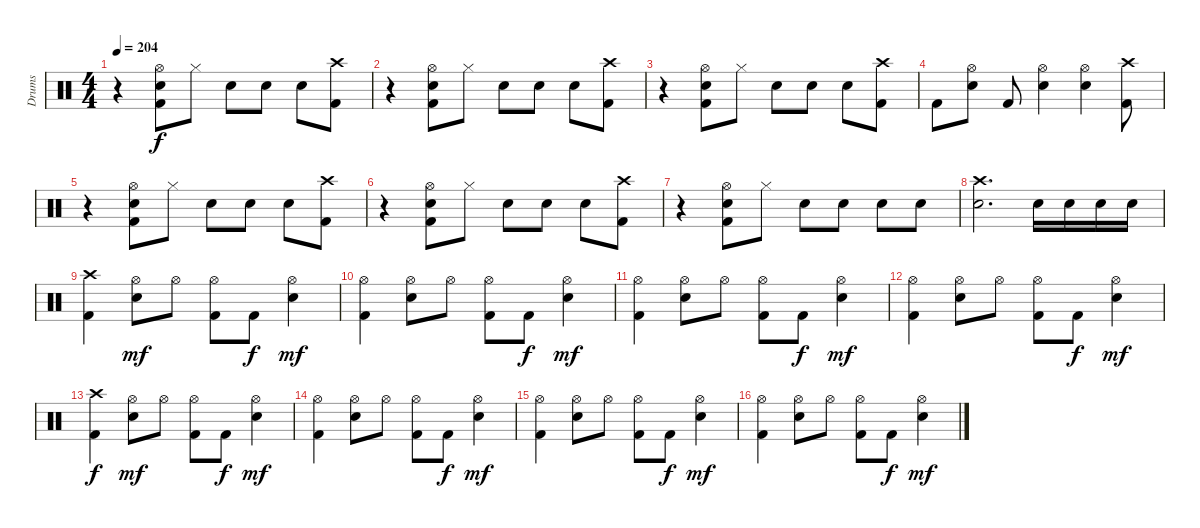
\track ("Drums" "Drums") {instrument percussion}
\staff {score}
\articulation defaults
\ts (4 4)
\tempo 204
\clef neutral
\ks c
r.4{dy f} ("Kick (hit) 2" "Electric Snare (hit)" "Hi-Hat (open)").8 "Hi-Hat (closed)".8 "Electric Snare (hit)".8 "Electric Snare (hit)".8 "Electric Snare (hit)".8 ("Kick (hit) 2" "Crash high (hit)").8 |
r.4 ("Kick (hit) 2" "Electric Snare (hit)" "Hi-Hat (open)").8 "Hi-Hat (closed)".8 "Electric Snare (hit)".8 "Electric Snare (hit)".8 "Electric Snare (hit)".8 ("Kick (hit) 2" "Crash high (hit)").8 |
r.4 ("Kick (hit) 2" "Electric Snare (hit)" "Hi-Hat (open)").8 "Hi-Hat (closed)".8 "Electric Snare (hit)".8 "Electric Snare (hit)".8 "Electric Snare (hit)".8 ("Kick (hit) 2" "Crash high (hit)").8 |
"Kick (hit) 2".8 ("Electric Snare (hit)" "Hi-Hat (open)").8 "Kick (hit) 2".8 ("Electric Snare (hit)" "Hi-Hat (open)").4 ("Electric Snare (hit)" "Hi-Hat (open)").4 ("Crash high (hit)" "Kick (hit) 2").8 |
r.4 ("Kick (hit) 2" "Electric Snare (hit)" "Hi-Hat (open)").8 "Hi-Hat (closed)".8 "Electric Snare (hit)".8 "Electric Snare (hit)".8 "Electric Snare (hit)".8 ("Kick (hit) 2" "Crash high (hit)").8 |
r.4 ("Kick (hit) 2" "Electric Snare (hit)" "Hi-Hat (open)").8 "Hi-Hat (closed)".8 "Electric Snare (hit)".8 "Electric Snare (hit)".8 "Electric Snare (hit)".8 ("Kick (hit) 2" "Crash high (hit)").8 |
r.4 ("Kick (hit) 2" "Electric Snare (hit)" "Hi-Hat (open)").8 "Hi-Hat (closed)".8 "Electric Snare (hit)".8 "Electric Snare (hit)".8 "Electric Snare (hit)".8 "Electric Snare (hit)".8 |
("Crash high (hit)" "Electric Snare (hit)").2{d} "Electric Snare (hit)".16 "Electric Snare (hit)".16 "Electric Snare (hit)".16 "Electric Snare (hit)".16 |
("Kick (hit) 2" "Crash high (hit)").4 ("Snare (hit) 2" "Hi-Hat (open)").8{dy mf} "Hi-Hat (open)".8 ("Kick (hit) 2" "Hi-Hat (open)").8 "Kick (hit) 2".8{dy f} ("Snare (hit) 2" "Hi-Hat (open)").4{dy mf} |
("Kick (hit) 2" "Hi-Hat (open)").4 ("Electric Snare (hit)" "Hi-Hat (open)").8 "Hi-Hat (open)".8 ("Kick (hit) 2" "Hi-Hat (open)").8 "Kick (hit) 2".8{dy f} ("Electric Snare (hit)" "Hi-Hat (open)").4{dy mf} |
("Kick (hit) 2" "Hi-Hat (open)").4 ("Electric Snare (hit)" "Hi-Hat (open)").8 "Hi-Hat (open)".8 ("Kick (hit) 2" "Hi-Hat (open)").8 "Kick (hit) 2".8{dy f} ("Electric Snare (hit)" "Hi-Hat (open)").4{dy mf} |
("Kick (hit) 2" "Hi-Hat (open)").4 ("Electric Snare (hit)" "Hi-Hat (open)").8 "Hi-Hat (open)".8 ("Kick (hit) 2" "Hi-Hat (open)").8 "Kick (hit) 2".8{dy f} ("Electric Snare (hit)" "Hi-Hat (open)").4{dy mf} |
("Kick (hit) 2" "Crash high (hit)").4{dy f} ("Snare (hit) 2" "Hi-Hat (open)").8{dy mf} "Hi-Hat (open)".8 ("Kick (hit) 2" "Hi-Hat (open)").8 "Kick (hit) 2".8{dy f} ("Snare (hit) 2" "Hi-Hat (open)").4{dy mf} |
("Kick (hit) 2" "Hi-Hat (open)").4 ("Electric Snare (hit)" "Hi-Hat (open)").8 "Hi-Hat (open)".8 ("Kick (hit) 2" "Hi-Hat (open)").8 "Kick (hit) 2".8{dy f} ("Electric Snare (hit)" "Hi-Hat (open)").4{dy mf} |
("Kick (hit) 2" "Hi-Hat (open)").4 ("Electric Snare (hit)" "Hi-Hat (open)").8 "Hi-Hat (open)".8 ("Kick (hit) 2" "Hi-Hat (open)").8 "Kick (hit) 2".8{dy f} ("Electric Snare (hit)" "Hi-Hat (open)").4{dy mf} |
("Kick (hit) 2" "Hi-Hat (open)").4 ("Electric Snare (hit)" "Hi-Hat (open)").8 "Hi-Hat (open)".8 ("Kick (hit) 2" "Hi-Hat (open)").8 "Kick (hit) 2".8{dy f} ("Electric Snare (hit)" "Hi-Hat (open)").4{dy mf}
